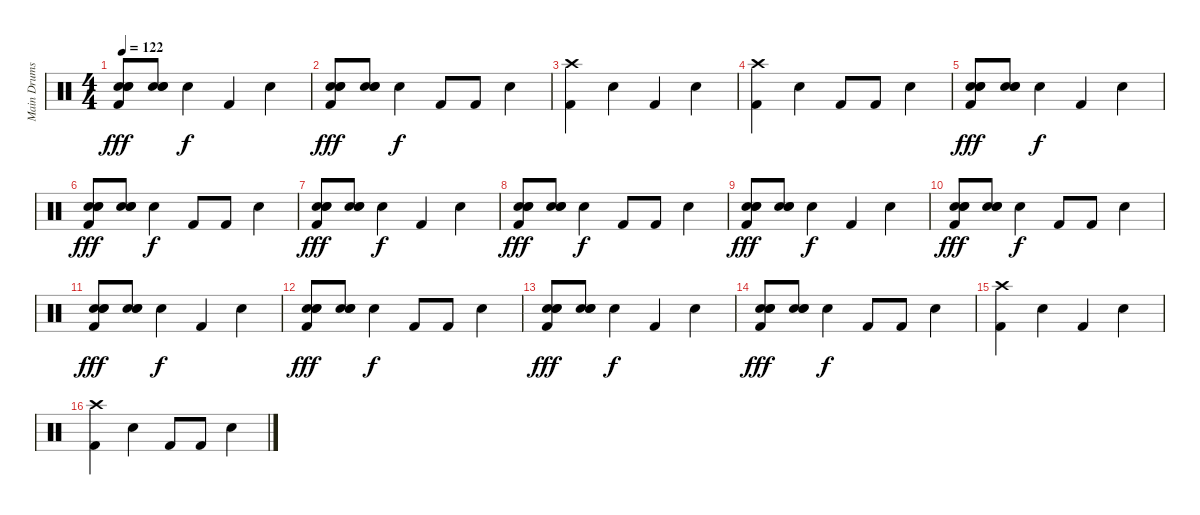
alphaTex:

\track ("Main Drums" "Main Drums") {instrument percussion}
\staff {score}
\articulation defaults
\ts (4 4)
\tempo 122
\clef neutral
\ks c
("Hand Clap (hit)" "Hand Clap (hit)" "Electric Snare (hit)" "Kick (hit) 2").8{dy fff} ("Hand Clap (hit)" "Hand Clap (hit)" "Electric Snare (hit)").8 "Snare (hit) 2".4{dy f} "Kick (hit) 2".4 "Snare (hit) 2".4 |
("Hand Clap (hit)" "Hand Clap (hit)" "Electric Snare (hit)" "Kick (hit) 2").8{dy fff} ("Hand Clap (hit)" "Hand Clap (hit)" "Electric Snare (hit)").8 "Snare (hit) 2".4{dy f} "Kick (hit) 2".8 "Kick (hit) 2".8 "Snare (hit) 2".4 |
("Kick (hit) 2" "Crash high (hit)").4 "Snare (hit) 2".4 "Kick (hit) 2".4 "Snare (hit) 2".4 |
("Kick (hit) 2" "Crash high (hit)").4 "Snare (hit) 2".4 "Kick (hit) 2".8 "Kick (hit) 2".8 "Snare (hit) 2".4 |
("Hand Clap (hit)" "Hand Clap (hit)" "Electric Snare (hit)" "Kick (hit) 2").8{dy fff} ("Hand Clap (hit)" "Hand Clap (hit)" "Electric Snare (hit)").8 "Snare (hit) 2".4{dy f} "Kick (hit) 2".4 "Snare (hit) 2".4 |
("Hand Clap (hit)" "Hand Clap (hit)" "Electric Snare (hit)" "Kick (hit) 2").8{dy fff} ("Hand Clap (hit)" "Hand Clap (hit)" "Electric Snare (hit)").8 "Snare (hit) 2".4{dy f} "Kick (hit) 2".8 "Kick (hit) 2".8 "Snare (hit) 2".4 |
("Hand Clap (hit)" "Hand Clap (hit)" "Electric Snare (hit)" "Kick (hit) 2").8{dy fff} ("Hand Clap (hit)" "Hand Clap (hit)" "Electric Snare (hit)").8 "Snare (hit) 2".4{dy f} "Kick (hit) 2".4 "Snare (hit) 2".4 |
("Hand Clap (hit)" "Hand Clap (hit)" "Electric Snare (hit)" "Kick (hit) 2").8{dy fff} ("Hand Clap (hit)" "Hand Clap (hit)" "Electric Snare (hit)").8 "Snare (hit) 2".4{dy f} "Kick (hit) 2".8 "Kick (hit) 2".8 "Snare (hit) 2".4 |
("Hand Clap (hit)" "Hand Clap (hit)" "Electric Snare (hit)" "Kick (hit) 2").8{dy fff} ("Hand Clap (hit)" "Hand Clap (hit)" "Electric Snare (hit)").8 "Snare (hit) 2".4{dy f} "Kick (hit) 2".4 "Snare (hit) 2".4 |
("Hand Clap (hit)" "Hand Clap (hit)" "Electric Snare (hit)" "Kick (hit) 2").8{dy fff} ("Hand Clap (hit)" "Hand Clap (hit)" "Electric Snare (hit)").8 "Snare (hit) 2".4{dy f} "Kick (hit) 2".8 "Kick (hit) 2".8 "Snare (hit) 2".4 |
("Hand Clap (hit)" "Hand Clap (hit)" "Electric Snare (hit)" "Kick (hit) 2").8{dy fff} ("Hand Clap (hit)" "Hand Clap (hit)" "Electric Snare (hit)").8 "Snare (hit) 2".4{dy f} "Kick (hit) 2".4 "Snare (hit) 2".4 |
("Hand Clap (hit)" "Hand Clap (hit)" "Electric Snare (hit)" "Kick (hit) 2").8{dy fff} ("Hand Clap (hit)" "Hand Clap (hit)" "Electric Snare (hit)").8 "Snare (hit) 2".4{dy f} "Kick (hit) 2".8 "Kick (hit) 2".8 "Snare (hit) 2".4 |
("Hand Clap (hit)" "Hand Clap (hit)" "Electric Snare (hit)" "Kick (hit) 2").8{dy fff} ("Hand Clap (hit)" "Hand Clap (hit)" "Electric Snare (hit)").8 "Snare (hit) 2".4{dy f} "Kick (hit) 2".4 "Snare (hit) 2".4 |
("Hand Clap (hit)" "Hand Clap (hit)" "Electric Snare (hit)" "Kick (hit) 2").8{dy fff} ("Hand Clap (hit)" "Hand Clap (hit)" "Electric Snare (hit)").8 "Snare (hit) 2".4{dy f} "Kick (hit) 2".8 "Kick (hit) 2".8 "Snare (hit) 2".4 |
("Kick (hit) 2" "Crash high (hit)").4 "Snare (hit) 2".4 "Kick (hit) 2".4 "Snare (hit) 2".4 |
("Kick (hit) 2" "Crash high (hit)").4 "Snare (hit) 2".4 "Kick (hit) 2".8 "Kick (hit) 2".8 "Snare (hit) 2".4
